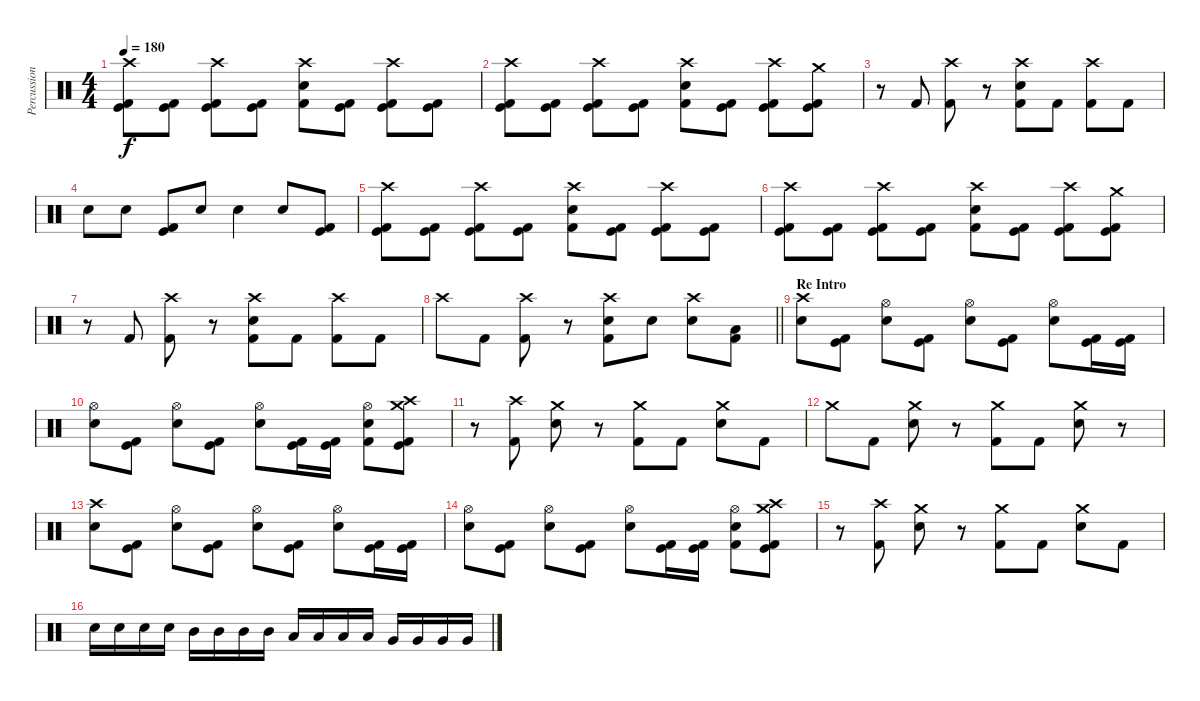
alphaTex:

\track ("Percussion" "Percussion") {instrument percussion}
\staff {score}
\articulation defaults
\ts (4 4)
\tempo 180
\clef neutral
\ks c
("Crash high (hit)" "Kick (hit)" "Kick (hit) 2").8{dy f volume 16} ("Kick (hit)" "Kick (hit) 2").8 ("Crash high (hit)" "Kick (hit)" "Kick (hit) 2").8 ("Kick (hit)" "Kick (hit) 2").8 ("Crash high (hit)" "Electric Snare (hit)" "Kick (hit) 2").8 ("Kick (hit)" "Kick (hit) 2").8 ("Crash high (hit)" "Kick (hit)" "Kick (hit) 2").8 ("Kick (hit)" "Kick (hit) 2").8 |
("Crash high (hit)" "Kick (hit)" "Kick (hit) 2").8{volume 16} ("Kick (hit)" "Kick (hit) 2").8 ("Crash high (hit)" "Kick (hit)" "Kick (hit) 2").8 ("Kick (hit)" "Kick (hit) 2").8 ("Crash high (hit)" "Electric Snare (hit)" "Kick (hit) 2").8 ("Kick (hit)" "Kick (hit) 2").8 ("Crash high (hit)" "Kick (hit)" "Kick (hit) 2").8 ("Crash medium (hit)" "Kick (hit)" "Kick (hit) 2").8 |
r.8 "Kick (hit) 2".8 ("Crash high (hit)" "Kick (hit) 2").8 r.8 ("Crash high (hit)" "Electric Snare (hit)" "Kick (hit) 2").8 "Kick (hit) 2".8 ("Crash high (hit)" "Kick (hit) 2").8 "Kick (hit) 2".8 |
"Electric Snare (hit)".8 "Electric Snare (hit)".8 ("Kick (hit)" "Kick (hit) 2").8 "Electric Snare (hit)".8 "Electric Snare (hit)".4 "Electric Snare (hit)".8 ("Kick (hit)" "Kick (hit) 2").8 |
("Crash high (hit)" "Kick (hit)" "Kick (hit) 2").8{volume 16} ("Kick (hit)" "Kick (hit) 2").8 ("Crash high (hit)" "Kick (hit)" "Kick (hit) 2").8 ("Kick (hit)" "Kick (hit) 2").8 ("Crash high (hit)" "Electric Snare (hit)" "Kick (hit) 2").8 ("Kick (hit)" "Kick (hit) 2").8 ("Crash high (hit)" "Kick (hit)" "Kick (hit) 2").8 ("Kick (hit)" "Kick (hit) 2").8 |
("Crash high (hit)" "Kick (hit)" "Kick (hit) 2").8{volume 16} ("Kick (hit)" "Kick (hit) 2").8 ("Crash high (hit)" "Kick (hit)" "Kick (hit) 2").8 ("Kick (hit)" "Kick (hit) 2").8 ("Crash high (hit)" "Electric Snare (hit)" "Kick (hit) 2").8 ("Kick (hit)" "Kick (hit) 2").8 ("Crash high (hit)" "Kick (hit)" "Kick (hit) 2").8 ("Crash medium (hit)" "Kick (hit)" "Kick (hit) 2").8 |
r.8 "Kick (hit) 2".8 ("Crash high (hit)" "Kick (hit) 2").8 r.8 ("Crash high (hit)" "Electric Snare (hit)" "Kick (hit) 2").8 "Kick (hit) 2".8 ("Crash high (hit)" "Kick (hit) 2").8 "Kick (hit) 2".8 |
\barLineRight lightlight "Crash high (hit)".8 "Kick (hit) 2".8
("Crash high (hit)" "Kick (hit) 2").8 r.8 ("Crash high (hit)" "Electric Snare (hit)" "Kick (hit) 2").8 "Electric Snare (hit)".8 ("Crash high (hit)" "Electric Snare (hit)").8 ("Low Tom (hit)" "Kick (hit) 2").8 |
\section ("" "Re Intro")
("Crash high (hit)" "Electric Snare (hit)").8 ("Kick (hit)" "Kick (hit) 2").8 ("Hi-Hat (open)" "Electric Snare (hit)").8 ("Kick (hit)" "Kick (hit) 2").8 ("Hi-Hat (open)" "Electric Snare (hit)").8 ("Kick (hit)" "Kick (hit) 2").8 ("Hi-Hat (open)" "Electric Snare (hit)").8 ("Kick (hit)" "Kick (hit) 2").16 ("Kick (hit)" "Kick (hit) 2").16 |
("Hi-Hat (open)" "Electric Snare (hit)").8 ("Kick (hit)" "Kick (hit) 2").8 ("Hi-Hat (open)" "Electric Snare (hit)").8 ("Kick (hit)" "Kick (hit) 2").8 ("Hi-Hat (open)" "Electric Snare (hit)").8 ("Kick (hit)" "Kick (hit) 2").16 ("Kick (hit)" "Kick (hit) 2").16 ("Hi-Hat (open)" "Electric Snare (hit)" "Kick (hit) 2").8 ("Crash medium (hit)" "Crash high (hit)" "Kick (hit)" "Kick (hit) 2").8 |
r.8 ("Crash high (hit)" "Kick (hit) 2").8 ("Crash medium (hit)" "Electric Snare (hit)").8 r.8 ("Crash medium (hit)" "Kick (hit) 2").8 "Kick (hit) 2".8 ("Crash medium (hit)" "Electric Snare (hit)").8 "Kick (hit) 2".8 |
"Crash medium (hit)".8 "Kick (hit) 2".8 ("Crash medium (hit)" "Electric Snare (hit)").8 r.8 ("Crash medium (hit)" "Kick (hit) 2").8 "Kick (hit) 2".8 ("Crash medium (hit)" "Electric Snare (hit)").8 r.8 |
("Crash high (hit)" "Electric Snare (hit)").8 ("Kick (hit)" "Kick (hit) 2").8 ("Hi-Hat (open)" "Electric Snare (hit)").8 ("Kick (hit)" "Kick (hit) 2").8 ("Hi-Hat (open)" "Electric Snare (hit)").8 ("Kick (hit)" "Kick (hit) 2").8 ("Hi-Hat (open)" "Electric Snare (hit)").8 ("Kick (hit)" "Kick (hit) 2").16 ("Kick (hit)" "Kick (hit) 2").16 |
("Hi-Hat (open)" "Electric Snare (hit)").8 ("Kick (hit)" "Kick (hit) 2").8 ("Hi-Hat (open)" "Electric Snare (hit)").8 ("Kick (hit)" "Kick (hit) 2").8 ("Hi-Hat (open)" "Electric Snare (hit)").8 ("Kick (hit)" "Kick (hit) 2").16 ("Kick (hit)" "Kick (hit) 2").16 ("Hi-Hat (open)" "Electric Snare (hit)" "Kick (hit) 2").8 ("Crash medium (hit)" "Crash high (hit)" "Kick (hit)" "Kick (hit) 2").8 |
r.8 ("Crash high (hit)" "Kick (hit) 2").8 ("Crash medium (hit)" "Electric Snare (hit)").8 r.8 ("Crash medium (hit)" "Kick (hit) 2").8 "Kick (hit) 2".8 ("Crash medium (hit)" "Electric Snare (hit)").8 "Kick (hit) 2".8 |
"Snare (hit) 2".16 "Snare (hit) 2".16 "Snare (hit) 2".16 "Snare (hit) 2".16 "Mid Tom (hit)".16 "Mid Tom (hit)".16 "Mid Tom (hit)".16 "Mid Tom (hit)".16 "Low Floor Tom (hit)".16 "Low Floor Tom (hit)".16 "Low Floor Tom (hit)".16 "Low Floor Tom (hit)".16 "Very Low Tom (hit)".16 "Very Low Tom (hit)".16 "Very Low Tom (hit)".16 "Very Low Tom (hit)".16
